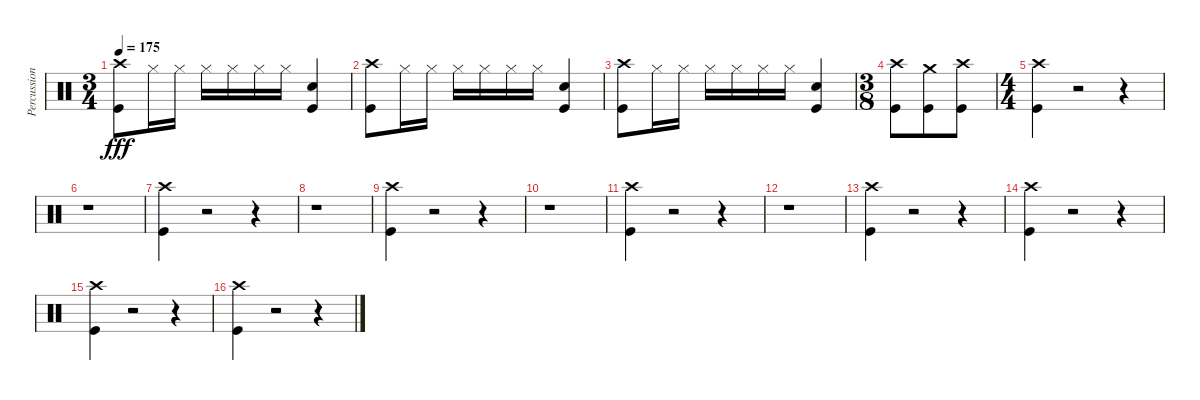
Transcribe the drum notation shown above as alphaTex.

\track ("Percussion" "Percussion") {instrument percussion}
\staff {score}
\articulation defaults
\ts (3 4)
\tempo 175
\clef neutral
\ks c
("Crash high (hit)" "Kick (hit)").8{dy fff} "Hi-Hat (closed)".16 "Hi-Hat (closed)".16 "Hi-Hat (closed)".16 "Hi-Hat (closed)".16 "Hi-Hat (closed)".16 "Hi-Hat (closed)".16 ("Snare (hit) 2" "Kick (hit)").4 |
("Crash high (hit)" "Kick (hit)").8 "Hi-Hat (closed)".16 "Hi-Hat (closed)".16 "Hi-Hat (closed)".16 "Hi-Hat (closed)".16 "Hi-Hat (closed)".16 "Hi-Hat (closed)".16 ("Snare (hit) 2" "Kick (hit)").4 |
("Crash high (hit)" "Kick (hit)").8 "Hi-Hat (closed)".16 "Hi-Hat (closed)".16 "Hi-Hat (closed)".16 "Hi-Hat (closed)".16 "Hi-Hat (closed)".16 "Hi-Hat (closed)".16 ("Snare (hit) 2" "Kick (hit)").4 |
\ts (3 8)
("Crash high (hit)" "Kick (hit)").8 ("Crash medium (hit)" "Kick (hit)").8 ("Crash high (hit)" "Kick (hit)").8 |
\ts (4 4)
("Crash high (hit)" "Kick (hit)").4 r.2 r.4 |
r.1 |
("Crash high (hit)" "Kick (hit)").4 r.2 r.4 |
r.1 |
("Crash high (hit)" "Kick (hit)").4 r.2 r.4 |
r.1 |
("Crash high (hit)" "Kick (hit)").4 r.2 r.4 |
r.1 |
("Crash high (hit)" "Kick (hit)").4 r.2 r.4 |
("Crash high (hit)" "Kick (hit)").4 r.2 r.4 |
("Crash high (hit)" "Kick (hit)").4 r.2 r.4 |
("Crash high (hit)" "Kick (hit)").4 r.2 r.4
